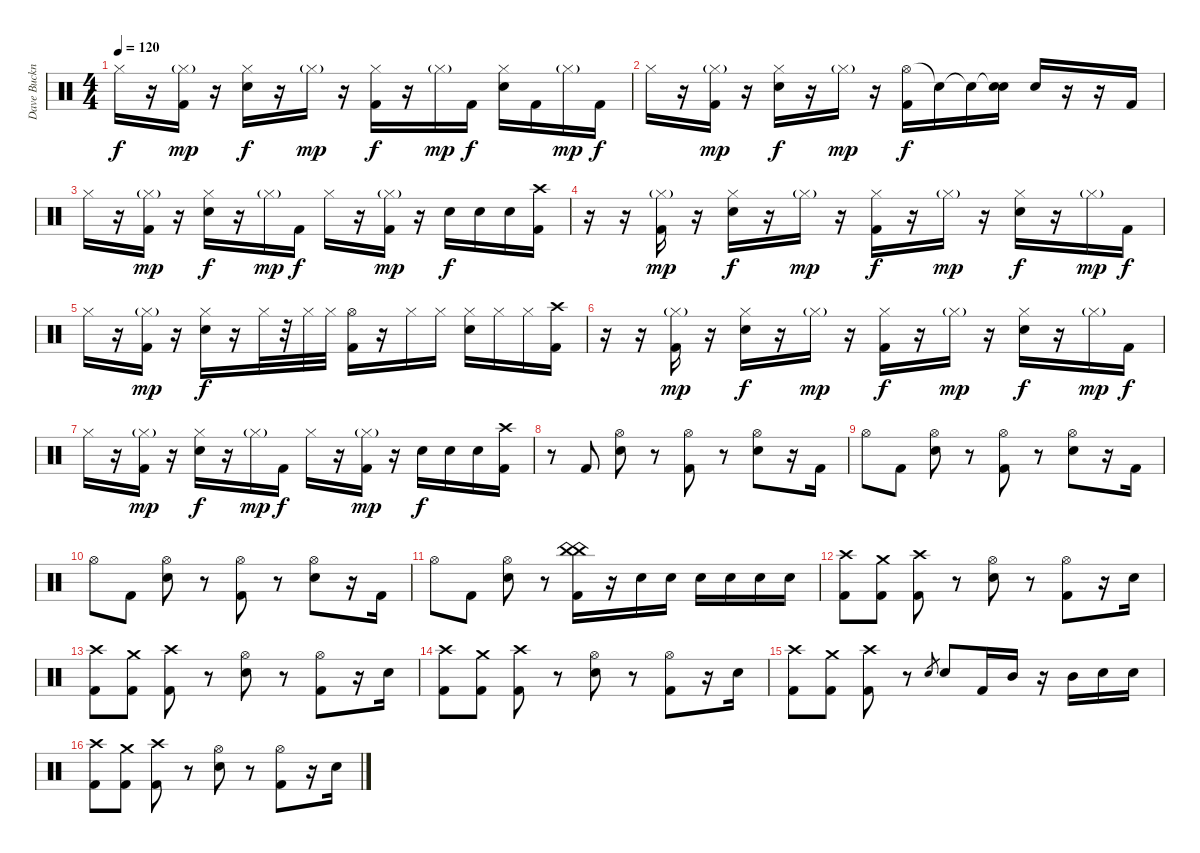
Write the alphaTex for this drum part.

\track ("Dave Buckner RULZ!!! (Drums)" "Dave Buckn") {instrument percussion}
\staff {score}
\articulation defaults
\ts (4 4)
\tempo 120
\clef neutral
\ks c "Hi-Hat (closed)".16{dy f}
r.16 ("Hi-Hat (closed)"{g} "Kick (hit) 2").16{dy mp} r.16 ("Hi-Hat (closed)" "Electric Snare (hit)").16{dy f} r.16 "Hi-Hat (closed)"{g}.16{dy mp} r.16 ("Hi-Hat (closed)" "Kick (hit) 2").16{dy f} r.16 "Hi-Hat (closed)"{g}.16{dy mp} "Kick (hit) 2".16{dy f} ("Hi-Hat (closed)" "Electric Snare (hit)").16 "Kick (hit) 2".16 "Hi-Hat (closed)"{g}.16{dy mp} "Kick (hit) 2".16{dy f} |
"Hi-Hat (closed)".16 r.16 ("Hi-Hat (closed)"{g} "Kick (hit) 2").16{dy mp} r.16 ("Hi-Hat (closed)" "Electric Snare (hit)").16{dy f} r.16 "Hi-Hat (closed)"{g}.16{dy mp} r.16 ("Hi-Hat (open)" "Kick (hit) 2").16{dy f} "Snare (hit)"{t}.16 "Snare (hit)"{t}.16 ("Snare (hit)"{t} "Electric Snare (hit)").16 "Electric Snare (hit)".16 r.16 r.16 "Kick (hit) 2".16 |
"Hi-Hat (closed)".16 r.16 ("Hi-Hat (closed)"{g} "Kick (hit) 2").16{dy mp} r.16 ("Hi-Hat (closed)" "Electric Snare (hit)").16{dy f} r.16 "Hi-Hat (closed)"{g}.16{dy mp} "Kick (hit) 2".16{dy f} "Hi-Hat (closed)".16 r.16 ("Hi-Hat (closed)"{g} "Kick (hit) 2").16{dy mp} r.16 "Electric Snare (hit)".16{dy f} "Electric Snare (hit)".16 "Electric Snare (hit)".16 ("Crash high (hit)" "Kick (hit) 2").16 |
r.16 r.16 ("Hi-Hat (closed)"{g} "Kick (hit) 2").16{dy mp} r.16 ("Hi-Hat (closed)" "Electric Snare (hit)").16{dy f} r.16 "Hi-Hat (closed)"{g}.16{dy mp} r.16 ("Hi-Hat (closed)" "Kick (hit) 2").16{dy f} r.16 "Hi-Hat (closed)"{g}.16{dy mp} r.16 ("Hi-Hat (closed)" "Electric Snare (hit)").16{dy f} r.16 "Hi-Hat (closed)"{g}.16{dy mp} "Kick (hit) 2".16{dy f} |
"Hi-Hat (closed)".16 r.16 ("Hi-Hat (closed)"{g} "Kick (hit) 2").16{dy mp} r.16 ("Hi-Hat (closed)" "Electric Snare (hit)").16{dy f} r.16 "Hi-Hat (closed)".32 r.32 "Hi-Hat (closed)".32 "Hi-Hat (closed)".32 ("Hi-Hat (open)" "Kick (hit) 2").16 r.16 "Hi-Hat (closed)".16 "Hi-Hat (closed)".16 ("Hi-Hat (closed)" "Electric Snare (hit)").16 "Hi-Hat (closed)".16 "Hi-Hat (closed)".16 ("Crash high (hit)" "Kick (hit) 2").16 |
r.16 r.16 ("Hi-Hat (closed)"{g} "Kick (hit) 2").16{dy mp} r.16 ("Hi-Hat (closed)" "Electric Snare (hit)").16{dy f} r.16 "Hi-Hat (closed)"{g}.16{dy mp} r.16 ("Hi-Hat (closed)" "Kick (hit) 2").16{dy f} r.16 "Hi-Hat (closed)"{g}.16{dy mp} r.16 ("Hi-Hat (closed)" "Electric Snare (hit)").16{dy f} r.16 "Hi-Hat (closed)"{g}.16{dy mp} "Kick (hit) 2".16{dy f} |
"Hi-Hat (closed)".16 r.16 ("Hi-Hat (closed)"{g} "Kick (hit) 2").16{dy mp} r.16 ("Hi-Hat (closed)" "Electric Snare (hit)").16{dy f} r.16 "Hi-Hat (closed)"{g}.16{dy mp} "Kick (hit) 2".16{dy f} "Hi-Hat (closed)".16 r.16 ("Hi-Hat (closed)"{g} "Kick (hit) 2").16{dy mp} r.16 "Electric Snare (hit)".16{dy f} "Electric Snare (hit)".16 "Electric Snare (hit)".16 ("Crash high (hit)" "Kick (hit) 2").16 |
r.8 "Kick (hit) 2".8 ("Hi-Hat (open)" "Electric Snare (hit)").8 r.8 ("Hi-Hat (open)" "Kick (hit) 2").8 r.8 ("Hi-Hat (open)" "Electric Snare (hit)").8 r.16 "Kick (hit) 2".16 |
"Hi-Hat (open)".8 "Kick (hit) 2".8 ("Hi-Hat (open)" "Electric Snare (hit)").8 r.8 ("Hi-Hat (open)" "Kick (hit) 2").8 r.8 ("Hi-Hat (open)" "Electric Snare (hit)").8 r.16 "Kick (hit) 2".16 |
"Hi-Hat (open)".8 "Kick (hit) 2".8 ("Hi-Hat (open)" "Electric Snare (hit)").8 r.8 ("Hi-Hat (open)" "Kick (hit) 2").8 r.8 ("Hi-Hat (open)" "Electric Snare (hit)").8 r.16 "Kick (hit) 2".16 |
"Hi-Hat (open)".8 "Kick (hit) 2".8 ("Hi-Hat (open)" "Electric Snare (hit)").8 r.8 ("China (hit)" "China (hit)" "Kick (hit) 2").16 r.16 "Electric Snare (hit)".16 "Electric Snare (hit)".16 "Electric Snare (hit)".16 "Electric Snare (hit)".16 "Electric Snare (hit)".16 "Electric Snare (hit)".16 |
("Crash high (hit)" "Kick (hit) 2").8 ("Crash medium (hit)" "Kick (hit) 2").8 ("Crash high (hit)" "Kick (hit) 2").8 r.8 ("Hi-Hat (open)" "Electric Snare (hit)").8 r.8 ("Hi-Hat (open)" "Kick (hit) 2").8 r.16 "Electric Snare (hit)".16 |
("Crash high (hit)" "Kick (hit) 2").8 ("Crash medium (hit)" "Kick (hit) 2").8 ("Crash high (hit)" "Kick (hit) 2").8 r.8 ("Hi-Hat (open)" "Electric Snare (hit)").8 r.8 ("Hi-Hat (open)" "Kick (hit) 2").8 r.16 "Electric Snare (hit)".16 |
("Crash high (hit)" "Kick (hit) 2").8 ("Crash medium (hit)" "Kick (hit) 2").8 ("Crash high (hit)" "Kick (hit) 2").8 r.8 ("Hi-Hat (open)" "Electric Snare (hit)").8 r.8 ("Hi-Hat (open)" "Kick (hit) 2").8 r.16 "Electric Snare (hit)".16 |
("Crash high (hit)" "Kick (hit) 2").8 ("Crash medium (hit)" "Kick (hit) 2").8 ("Crash high (hit)" "Kick (hit) 2").8 r.8 "Electric Snare (hit)".8{gr} "Electric Snare (hit)".8 "Kick (hit) 2".16 "Mid Tom (hit)".16 r.16 "Mid Tom (hit)".16 "Electric Snare (hit)".16 "Electric Snare (hit)".16 |
("Crash high (hit)" "Kick (hit) 2").8 ("Crash medium (hit)" "Kick (hit) 2").8 ("Crash high (hit)" "Kick (hit) 2").8 r.8 ("Hi-Hat (open)" "Electric Snare (hit)").8 r.8 ("Hi-Hat (open)" "Kick (hit) 2").8 r.16 "Electric Snare (hit)".16
